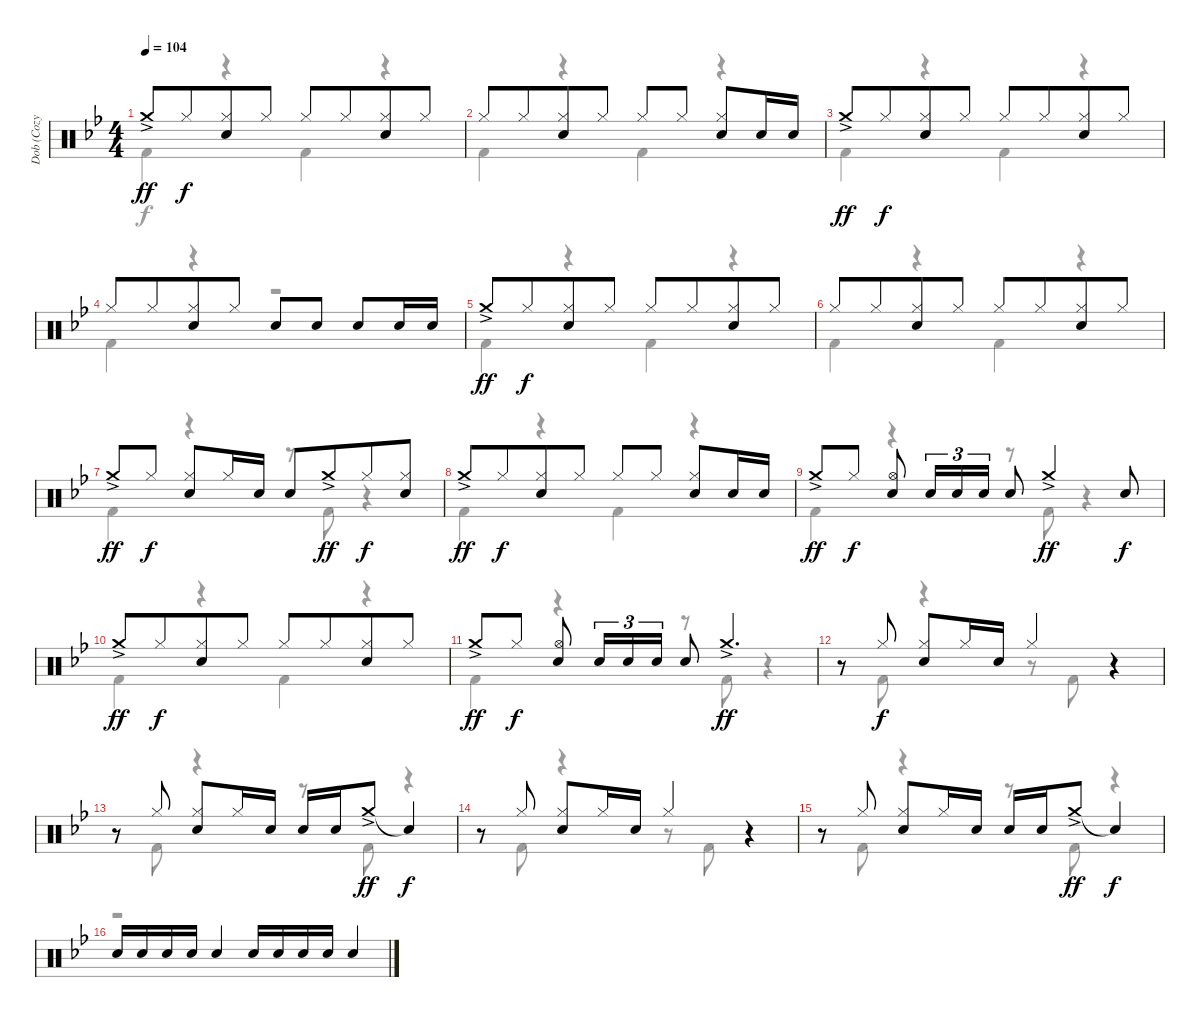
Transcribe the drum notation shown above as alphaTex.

\track ("Dob (Cozy Powell)" "Dob (Cozy ") {instrument percussion}
\staff {score}
\articulation defaults
\voice
\ts (4 4)
\tempo 104
\clef neutral
\ks bb "Crash medium (hit)"{ac}.8{dy ff} "Hi-Hat (closed)".8{dy f beam merge}
("Hi-Hat (closed)" "Electric Snare (hit)").8 "Hi-Hat (closed)".8 "Hi-Hat (closed)".8 "Hi-Hat (closed)".8{beam merge} ("Hi-Hat (closed)" "Electric Snare (hit)").8 "Hi-Hat (closed)".8 |
"Hi-Hat (closed)".8 "Hi-Hat (closed)".8{beam merge} ("Hi-Hat (closed)" "Electric Snare (hit)").8 "Hi-Hat (closed)".8 "Hi-Hat (closed)".8 "Hi-Hat (closed)".8{beam split} ("Hi-Hat (closed)" "Electric Snare (hit)").8 "Electric Snare (hit)".16 "Electric Snare (hit)".16 |
"Crash medium (hit)"{ac}.8{dy ff} "Hi-Hat (closed)".8{dy f beam merge} ("Hi-Hat (closed)" "Electric Snare (hit)").8 "Hi-Hat (closed)".8 "Hi-Hat (closed)".8 "Hi-Hat (closed)".8{beam merge} ("Hi-Hat (closed)" "Electric Snare (hit)").8 "Hi-Hat (closed)".8 |
"Hi-Hat (closed)".8 "Hi-Hat (closed)".8{beam merge} ("Hi-Hat (closed)" "Electric Snare (hit)").8 "Hi-Hat (closed)".8 "Electric Snare (hit)".8 "Electric Snare (hit)".8 "Electric Snare (hit)".8 "Electric Snare (hit)".16 "Electric Snare (hit)".16 |
"Crash medium (hit)"{ac}.8{dy ff} "Hi-Hat (closed)".8{dy f beam merge} ("Hi-Hat (closed)" "Electric Snare (hit)").8 "Hi-Hat (closed)".8 "Hi-Hat (closed)".8 "Hi-Hat (closed)".8{beam merge} ("Hi-Hat (closed)" "Electric Snare (hit)").8 "Hi-Hat (closed)".8 |
"Hi-Hat (closed)".8 "Hi-Hat (closed)".8{beam merge} ("Hi-Hat (closed)" "Electric Snare (hit)").8 "Hi-Hat (closed)".8 "Hi-Hat (closed)".8 "Hi-Hat (closed)".8{beam merge} ("Hi-Hat (closed)" "Electric Snare (hit)").8 "Hi-Hat (closed)".8 |
"Crash medium (hit)"{ac}.8{dy ff} "Hi-Hat (closed)".8{dy f} ("Hi-Hat (closed)" "Electric Snare (hit)").8 "Hi-Hat (closed)".16 "Electric Snare (hit)".16 "Electric Snare (hit)".8 "Crash medium (hit)"{ac}.8{dy ff beam merge} "Hi-Hat (closed)".8{dy f} ("Hi-Hat (closed)" "Electric Snare (hit)").8 |
"Crash medium (hit)"{ac}.8{dy ff} "Hi-Hat (closed)".8{dy f beam merge} ("Hi-Hat (closed)" "Electric Snare (hit)").8 "Hi-Hat (closed)".8 "Hi-Hat (closed)".8 "Hi-Hat (closed)".8 ("Hi-Hat (closed)" "Electric Snare (hit)").8 "Electric Snare (hit)".16 "Electric Snare (hit)".16 |
"Crash medium (hit)"{ac}.8{dy ff} "Hi-Hat (closed)".8{dy f} ("Hi-Hat (open)" "Electric Snare (hit)").8 "Electric Snare (hit)".16{tu (3 2)} "Electric Snare (hit)".16{tu (3 2)} "Electric Snare (hit)".16{tu (3 2)} "Electric Snare (hit)".8 "Crash medium (hit)"{ac}.4{dy ff} "Electric Snare (hit)".8{dy f} |
"Crash medium (hit)"{ac}.8{dy ff} "Hi-Hat (closed)".8{dy f beam merge} ("Hi-Hat (closed)" "Electric Snare (hit)").8 "Hi-Hat (closed)".8 "Hi-Hat (closed)".8 "Hi-Hat (closed)".8{beam merge} ("Hi-Hat (closed)" "Electric Snare (hit)").8 "Hi-Hat (closed)".8 |
"Crash medium (hit)"{ac}.8{dy ff} "Hi-Hat (closed)".8{dy f} ("Hi-Hat (open)" "Electric Snare (hit)").8 "Electric Snare (hit)".16{tu (3 2)} "Electric Snare (hit)".16{tu (3 2)} "Electric Snare (hit)".16{tu (3 2)} "Electric Snare (hit)".8 "Crash medium (hit)"{ac}.4{d dy ff} |
r.8 "Hi-Hat (closed)".8{dy f} ("Hi-Hat (closed)" "Electric Snare (hit)").8 "Hi-Hat (closed)".16 "Electric Snare (hit)".16 "Hi-Hat (closed)".4 r.4 |
r.8 "Hi-Hat (closed)".8 ("Hi-Hat (closed)" "Electric Snare (hit)").8 "Hi-Hat (closed)".16 "Electric Snare (hit)".16 "Electric Snare (hit)".16 "Electric Snare (hit)".16 "Crash medium (hit)"{ac}.8{dy ff} "Snare (hit)"{t}.4{dy f} |
r.8 "Hi-Hat (closed)".8 ("Hi-Hat (closed)" "Electric Snare (hit)").8 "Hi-Hat (closed)".16 "Electric Snare (hit)".16 "Hi-Hat (closed)".4 r.4 |
r.8 "Hi-Hat (closed)".8 ("Hi-Hat (closed)" "Electric Snare (hit)").8 "Hi-Hat (closed)".16 "Electric Snare (hit)".16 "Electric Snare (hit)".16 "Electric Snare (hit)".16 "Crash medium (hit)"{ac}.8{dy ff} "Snare (hit)"{t}.4{dy f} |
"Electric Snare (hit)".16 "Electric Snare (hit)".16 "Electric Snare (hit)".16 "Electric Snare (hit)".16 "Electric Snare (hit)".4 "Electric Snare (hit)".16 "Electric Snare (hit)".16 "Electric Snare (hit)".16 "Electric Snare (hit)".16 "Electric Snare (hit)".4
\voice
\clef neutral
\ottava regular
\simile none
\ks bb "Kick (hit) 2".4{dy f}
r.4 "Kick (hit) 2".4 r.4 |
"Kick (hit) 2".4 r.4 "Kick (hit) 2".4 r.4 |
"Kick (hit) 2".4 r.4 "Kick (hit) 2".4 r.4 |
"Kick (hit) 2".4 r.4 r.2 |
"Kick (hit) 2".4 r.4 "Kick (hit) 2".4 r.4 |
"Kick (hit) 2".4 r.4 "Kick (hit) 2".4 r.4 |
"Kick (hit) 2".4 r.4 r.8 "Kick (hit) 2".8 r.4 |
"Kick (hit) 2".4 r.4 "Kick (hit) 2".4 r.4 |
"Kick (hit) 2".4 r.4 r.8 "Kick (hit) 2".8 r.4 |
"Kick (hit) 2".4 r.4 "Kick (hit) 2".4 r.4 |
"Kick (hit) 2".4 r.4 r.8 "Kick (hit) 2".8 r.4 |
r.8 "Kick (hit) 2".8 r.4 r.8 "Kick (hit) 2".8 r.4 |
r.8 "Kick (hit) 2".8 r.4 r.8 "Kick (hit) 2".8 r.4 |
r.8 "Kick (hit) 2".8 r.4 r.8 "Kick (hit) 2".8 r.4 |
r.8 "Kick (hit) 2".8 r.4 r.8 "Kick (hit) 2".8 r.4 |
r.1
